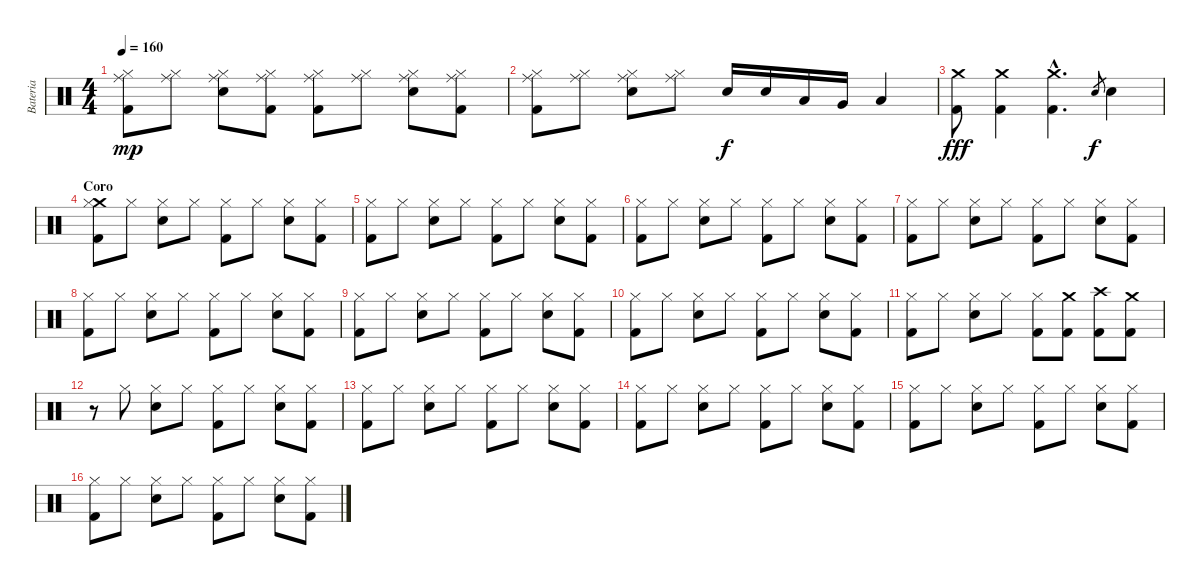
\track ("Bateria" "Bateria") {instrument percussion}
\staff {score}
\articulation defaults
\ts (4 4)
\tempo 160
\clef neutral
\ks c
("Hi-Hat (closed)" "Kick (hit) 2" "Ride (middle)").8{dy mp} ("Hi-Hat (closed)" "Ride (middle)").8 ("Hi-Hat (closed)" "Electric Snare (hit)" "Ride (middle)").8 ("Hi-Hat (closed)" "Kick (hit) 2" "Ride (middle)").8 ("Hi-Hat (closed)" "Kick (hit) 2" "Ride (middle)").8 ("Hi-Hat (closed)" "Ride (middle)").8 ("Hi-Hat (closed)" "Electric Snare (hit)" "Ride (middle)").8 ("Hi-Hat (closed)" "Kick (hit) 2" "Ride (middle)").8 |
("Hi-Hat (closed)" "Kick (hit) 2" "Ride (middle)").8 ("Hi-Hat (closed)" "Ride (middle)").8 ("Hi-Hat (closed)" "Electric Snare (hit)" "Ride (middle)").8 ("Hi-Hat (closed)" "Ride (middle)").8 "Electric Snare (hit)".16{dy f} "Electric Snare (hit)".16 "Low Tom (hit)".16 "Very Low Tom (hit)".16 "Low Tom (hit)".4 |
("Crash medium (hit)" "Kick (hit) 2").8{dy fff} ("Crash medium (hit)" "Kick (hit) 2").4 ("Crash medium (hit)"{hac} "Kick (hit) 2"{hac}).4{d} "Electric Snare (hit)".8{gr dy f} "Electric Snare (hit)".4 |
\section ("" "Coro")
("Crash medium (hit)" "Hi-Hat (closed)" "Kick (hit) 2").8 "Hi-Hat (closed)".8 ("Hi-Hat (closed)" "Electric Snare (hit)").8 "Hi-Hat (closed)".8 ("Hi-Hat (closed)" "Kick (hit) 2").8 "Hi-Hat (closed)".8 ("Hi-Hat (closed)" "Electric Snare (hit)").8 ("Hi-Hat (closed)" "Kick (hit) 2").8 |
("Hi-Hat (closed)" "Kick (hit) 2").8 "Hi-Hat (closed)".8 ("Hi-Hat (closed)" "Electric Snare (hit)").8 "Hi-Hat (closed)".8 ("Hi-Hat (closed)" "Kick (hit) 2").8 "Hi-Hat (closed)".8 ("Hi-Hat (closed)" "Electric Snare (hit)").8 ("Hi-Hat (closed)" "Kick (hit) 2").8 |
("Hi-Hat (closed)" "Kick (hit) 2").8 "Hi-Hat (closed)".8 ("Hi-Hat (closed)" "Electric Snare (hit)").8 "Hi-Hat (closed)".8 ("Hi-Hat (closed)" "Kick (hit) 2").8 "Hi-Hat (closed)".8 ("Hi-Hat (closed)" "Electric Snare (hit)").8 ("Hi-Hat (closed)" "Kick (hit) 2").8 |
("Hi-Hat (closed)" "Kick (hit) 2").8 "Hi-Hat (closed)".8 ("Hi-Hat (closed)" "Electric Snare (hit)").8 "Hi-Hat (closed)".8 ("Hi-Hat (closed)" "Kick (hit) 2").8 "Hi-Hat (closed)".8 ("Hi-Hat (closed)" "Electric Snare (hit)").8 ("Hi-Hat (closed)" "Kick (hit) 2").8 |
("Hi-Hat (closed)" "Kick (hit) 2").8 "Hi-Hat (closed)".8 ("Hi-Hat (closed)" "Electric Snare (hit)").8 "Hi-Hat (closed)".8 ("Hi-Hat (closed)" "Kick (hit) 2").8 "Hi-Hat (closed)".8 ("Hi-Hat (closed)" "Electric Snare (hit)").8 ("Hi-Hat (closed)" "Kick (hit) 2").8 |
("Hi-Hat (closed)" "Kick (hit) 2").8 "Hi-Hat (closed)".8 ("Hi-Hat (closed)" "Electric Snare (hit)").8 "Hi-Hat (closed)".8 ("Hi-Hat (closed)" "Kick (hit) 2").8 "Hi-Hat (closed)".8 ("Hi-Hat (closed)" "Electric Snare (hit)").8 ("Hi-Hat (closed)" "Kick (hit) 2").8 |
("Hi-Hat (closed)" "Kick (hit) 2").8 "Hi-Hat (closed)".8 ("Hi-Hat (closed)" "Electric Snare (hit)").8 "Hi-Hat (closed)".8 ("Hi-Hat (closed)" "Kick (hit) 2").8 "Hi-Hat (closed)".8 ("Hi-Hat (closed)" "Electric Snare (hit)").8 ("Hi-Hat (closed)" "Kick (hit) 2").8 |
("Hi-Hat (closed)" "Kick (hit) 2").8 "Hi-Hat (closed)".8 ("Hi-Hat (closed)" "Electric Snare (hit)").8 "Hi-Hat (closed)".8 ("Hi-Hat (closed)" "Kick (hit) 2").8 ("Crash medium (hit)" "Kick (hit) 2").8 ("Crash high (hit)" "Kick (hit) 2").8 ("Crash medium (hit)" "Kick (hit) 2").8 |
r.8 "Hi-Hat (closed)".8 ("Hi-Hat (closed)" "Electric Snare (hit)").8 "Hi-Hat (closed)".8 ("Hi-Hat (closed)" "Kick (hit) 2").8 "Hi-Hat (closed)".8 ("Hi-Hat (closed)" "Electric Snare (hit)").8 ("Hi-Hat (closed)" "Kick (hit) 2").8 |
("Hi-Hat (closed)" "Kick (hit) 2").8 "Hi-Hat (closed)".8 ("Hi-Hat (closed)" "Electric Snare (hit)").8 "Hi-Hat (closed)".8 ("Hi-Hat (closed)" "Kick (hit) 2").8 "Hi-Hat (closed)".8 ("Hi-Hat (closed)" "Electric Snare (hit)").8 ("Hi-Hat (closed)" "Kick (hit) 2").8 |
("Hi-Hat (closed)" "Kick (hit) 2").8 "Hi-Hat (closed)".8 ("Hi-Hat (closed)" "Electric Snare (hit)").8 "Hi-Hat (closed)".8 ("Hi-Hat (closed)" "Kick (hit) 2").8 "Hi-Hat (closed)".8 ("Hi-Hat (closed)" "Electric Snare (hit)").8 ("Hi-Hat (closed)" "Kick (hit) 2").8 |
("Hi-Hat (closed)" "Kick (hit) 2").8 "Hi-Hat (closed)".8 ("Hi-Hat (closed)" "Electric Snare (hit)").8 "Hi-Hat (closed)".8 ("Hi-Hat (closed)" "Kick (hit) 2").8 "Hi-Hat (closed)".8 ("Hi-Hat (closed)" "Electric Snare (hit)").8 ("Hi-Hat (closed)" "Kick (hit) 2").8 |
("Hi-Hat (closed)" "Kick (hit) 2").8 "Hi-Hat (closed)".8 ("Hi-Hat (closed)" "Electric Snare (hit)").8 "Hi-Hat (closed)".8 ("Hi-Hat (closed)" "Kick (hit) 2").8 "Hi-Hat (closed)".8 ("Hi-Hat (closed)" "Electric Snare (hit)").8 ("Hi-Hat (closed)" "Kick (hit) 2").8
